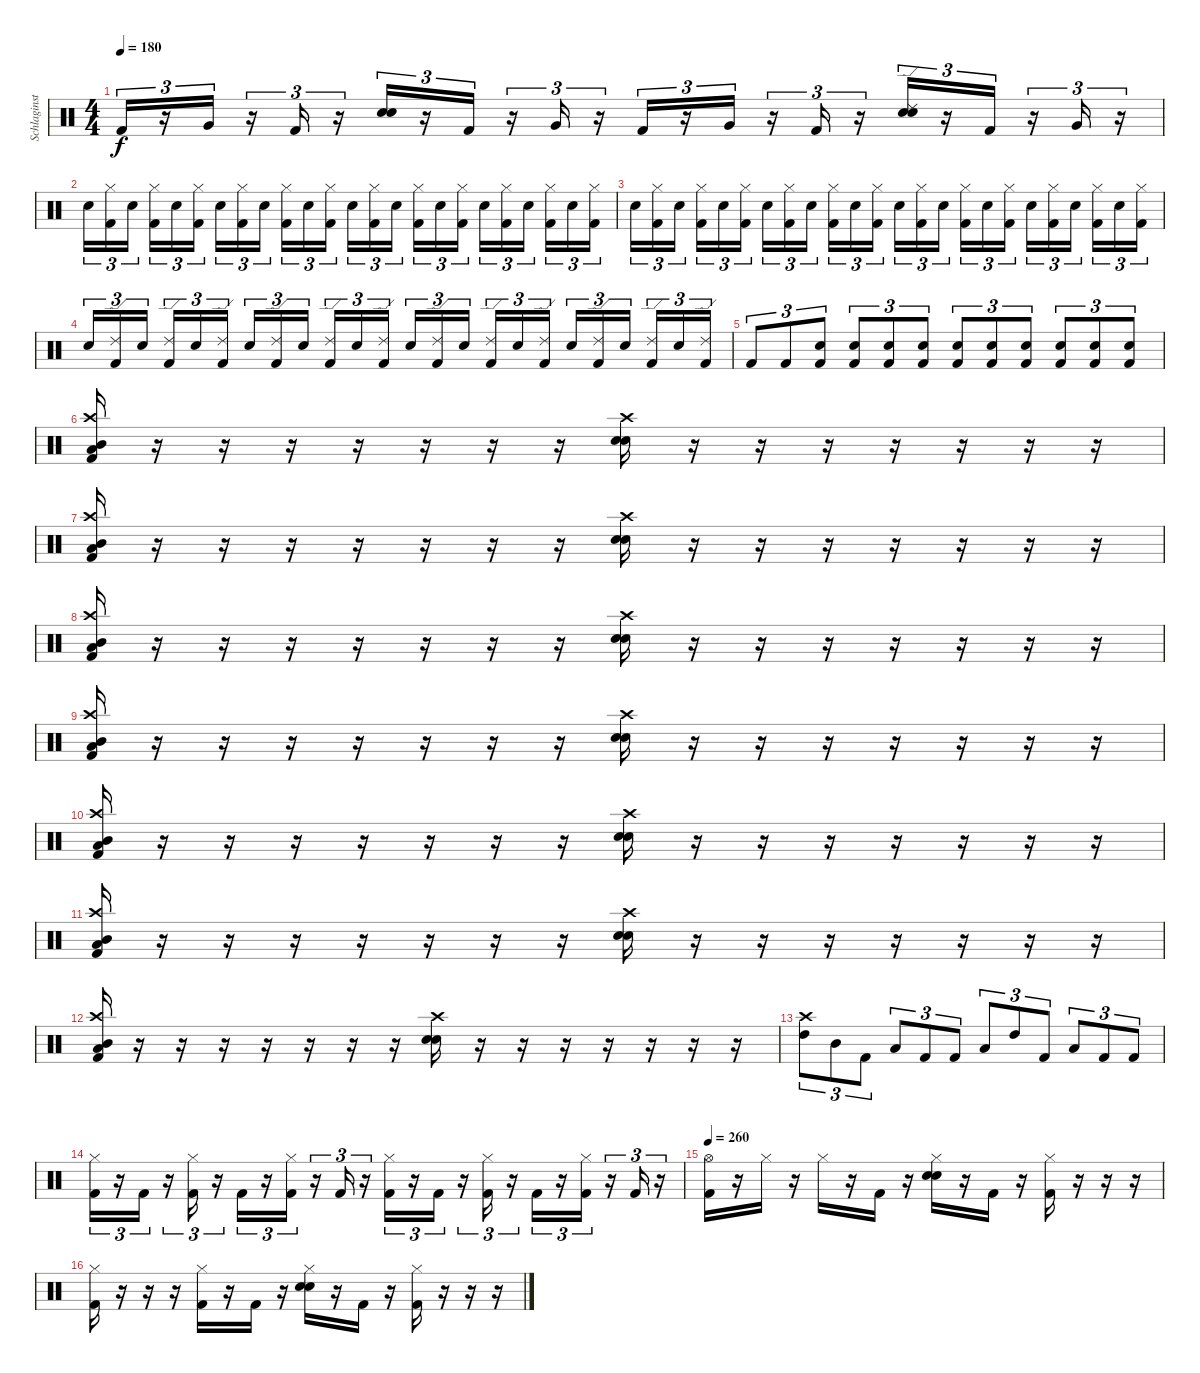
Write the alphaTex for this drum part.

\track ("Schlaginstrumente - Auswahl" "Schlaginst") {instrument percussion}
\staff {score}
\articulation defaults
\ts (4 4)
\tempo 180
\clef neutral
\ks c "Kick (hit) 2".16{tu (3 2) dy f}
r.16{tu (3 2)} "Very Low Tom (hit)".16{tu (3 2)} r.16{tu (3 2)} "Kick (hit) 2".16{tu (3 2)} r.16{tu (3 2)} ("Electric Snare (hit)" "Electric Snare (hit)").16{tu (3 2)} r.16{tu (3 2)} "Kick (hit) 2".16{tu (3 2)} r.16{tu (3 2)} "Very Low Tom (hit)".16{tu (3 2)} r.16{tu (3 2)} "Kick (hit) 2".16{tu (3 2)} r.16{tu (3 2)} "Very Low Tom (hit)".16{tu (3 2)} r.16{tu (3 2)} "Kick (hit) 2".16{tu (3 2)} r.16{tu (3 2)} ("Ride (edge) 2" "Electric Snare (hit)" "Electric Snare (hit)").16{tu (3 2)} r.16{tu (3 2)} "Kick (hit) 2".16{tu (3 2)} r.16{tu (3 2)} "Very Low Tom (hit)".16{tu (3 2)} r.16{tu (3 2)} |
"Electric Snare (hit)".16{tu (3 2)} ("Hi-Hat (closed)" "Kick (hit) 2").16{tu (3 2)} "Electric Snare (hit)".16{tu (3 2) beam splitsecondary} ("Hi-Hat (closed)" "Kick (hit) 2").16{tu (3 2)} "Electric Snare (hit)".16{tu (3 2)} ("Hi-Hat (closed)" "Kick (hit) 2").16{tu (3 2)} "Electric Snare (hit)".16{tu (3 2)} ("Hi-Hat (closed)" "Kick (hit) 2").16{tu (3 2)} "Electric Snare (hit)".16{tu (3 2) beam splitsecondary} ("Hi-Hat (closed)" "Kick (hit) 2").16{tu (3 2)} "Electric Snare (hit)".16{tu (3 2)} ("Hi-Hat (closed)" "Kick (hit) 2").16{tu (3 2)} "Electric Snare (hit)".16{tu (3 2)} ("Hi-Hat (closed)" "Kick (hit) 2").16{tu (3 2)} "Electric Snare (hit)".16{tu (3 2) beam splitsecondary} ("Hi-Hat (closed)" "Kick (hit) 2").16{tu (3 2)} "Electric Snare (hit)".16{tu (3 2)} ("Hi-Hat (closed)" "Kick (hit) 2").16{tu (3 2)} "Electric Snare (hit)".16{tu (3 2)} ("Hi-Hat (closed)" "Kick (hit) 2").16{tu (3 2)} "Electric Snare (hit)".16{tu (3 2) beam splitsecondary} ("Hi-Hat (closed)" "Kick (hit) 2").16{tu (3 2)} "Electric Snare (hit)".16{tu (3 2)} ("Hi-Hat (closed)" "Kick (hit) 2").16{tu (3 2)} |
"Electric Snare (hit)".16{tu (3 2)} ("Hi-Hat (closed)" "Kick (hit) 2").16{tu (3 2)} "Electric Snare (hit)".16{tu (3 2) beam splitsecondary} ("Hi-Hat (closed)" "Kick (hit) 2").16{tu (3 2)} "Electric Snare (hit)".16{tu (3 2)} ("Hi-Hat (closed)" "Kick (hit) 2").16{tu (3 2)} "Electric Snare (hit)".16{tu (3 2)} ("Hi-Hat (closed)" "Kick (hit) 2").16{tu (3 2)} "Electric Snare (hit)".16{tu (3 2) beam splitsecondary} ("Hi-Hat (closed)" "Kick (hit) 2").16{tu (3 2)} "Electric Snare (hit)".16{tu (3 2)} ("Hi-Hat (closed)" "Kick (hit) 2").16{tu (3 2)} "Electric Snare (hit)".16{tu (3 2)} ("Hi-Hat (closed)" "Kick (hit) 2").16{tu (3 2)} "Electric Snare (hit)".16{tu (3 2) beam splitsecondary} ("Hi-Hat (closed)" "Kick (hit) 2").16{tu (3 2)} "Electric Snare (hit)".16{tu (3 2)} ("Hi-Hat (closed)" "Kick (hit) 2").16{tu (3 2)} "Electric Snare (hit)".16{tu (3 2)} ("Hi-Hat (closed)" "Kick (hit) 2").16{tu (3 2)} "Electric Snare (hit)".16{tu (3 2) beam splitsecondary} ("Hi-Hat (closed)" "Kick (hit) 2").16{tu (3 2)} "Electric Snare (hit)".16{tu (3 2)} ("Hi-Hat (closed)" "Kick (hit) 2").16{tu (3 2)} |
"Electric Snare (hit)".16{tu (3 2)} ("Ride (edge) 2" "Kick (hit) 2").16{tu (3 2)} "Electric Snare (hit)".16{tu (3 2) beam splitsecondary} ("Ride (edge) 2" "Kick (hit) 2").16{tu (3 2)} "Electric Snare (hit)".16{tu (3 2)} ("Ride (edge) 2" "Kick (hit) 2").16{tu (3 2)} "Electric Snare (hit)".16{tu (3 2)} ("Ride (edge) 2" "Kick (hit) 2").16{tu (3 2)} "Electric Snare (hit)".16{tu (3 2) beam splitsecondary} ("Ride (edge) 2" "Kick (hit) 2").16{tu (3 2)} "Electric Snare (hit)".16{tu (3 2)} ("Ride (edge) 2" "Kick (hit) 2").16{tu (3 2)} "Electric Snare (hit)".16{tu (3 2)} ("Ride (edge) 2" "Kick (hit) 2").16{tu (3 2)} "Electric Snare (hit)".16{tu (3 2) beam splitsecondary} ("Ride (edge) 2" "Kick (hit) 2").16{tu (3 2)} "Electric Snare (hit)".16{tu (3 2)} ("Ride (edge) 2" "Kick (hit) 2").16{tu (3 2)} "Electric Snare (hit)".16{tu (3 2)} ("Ride (edge) 2" "Kick (hit) 2").16{tu (3 2)} "Electric Snare (hit)".16{tu (3 2) beam splitsecondary} ("Ride (edge) 2" "Kick (hit) 2").16{tu (3 2)} "Electric Snare (hit)".16{tu (3 2)} ("Ride (edge) 2" "Kick (hit) 2").16{tu (3 2)} |
"Kick (hit) 2".8{tu (3 2)} "Kick (hit) 2".8{tu (3 2)} ("Electric Snare (hit)" "Kick (hit) 2").8{tu (3 2)} ("Electric Snare (hit)" "Kick (hit) 2").8{tu (3 2)} ("Electric Snare (hit)" "Kick (hit) 2").8{tu (3 2)} ("Electric Snare (hit)" "Kick (hit) 2").8{tu (3 2)} ("Electric Snare (hit)" "Kick (hit) 2").8{tu (3 2)} ("Electric Snare (hit)" "Kick (hit) 2").8{tu (3 2)} ("Electric Snare (hit)" "Kick (hit) 2").8{tu (3 2)} ("Electric Snare (hit)" "Kick (hit) 2").8{tu (3 2)} ("Electric Snare (hit)" "Kick (hit) 2").8{tu (3 2)} ("Electric Snare (hit)" "Kick (hit) 2").8{tu (3 2)} |
("Crash high (hit)" "Low Floor Tom (hit)" "Mid Tom (hit)" "Kick (hit) 2").16 r.16 r.16 r.16 r.16 r.16 r.16 r.16 ("Crash high (hit)" "Electric Snare (hit)" "Electric Snare (hit)").16 r.16 r.16 r.16 r.16 r.16 r.16 r.16 |
("Crash high (hit)" "Low Floor Tom (hit)" "Mid Tom (hit)" "Kick (hit) 2").16 r.16 r.16 r.16 r.16 r.16 r.16 r.16 ("Crash high (hit)" "Electric Snare (hit)" "Electric Snare (hit)").16 r.16 r.16 r.16 r.16 r.16 r.16 r.16 |
("Crash high (hit)" "Low Floor Tom (hit)" "Mid Tom (hit)" "Kick (hit) 2").16 r.16 r.16 r.16 r.16 r.16 r.16 r.16 ("Crash high (hit)" "Electric Snare (hit)" "Electric Snare (hit)").16 r.16 r.16 r.16 r.16 r.16 r.16 r.16 |
("Crash high (hit)" "Low Floor Tom (hit)" "Mid Tom (hit)" "Kick (hit) 2").16 r.16 r.16 r.16 r.16 r.16 r.16 r.16 ("Crash high (hit)" "Electric Snare (hit)" "Electric Snare (hit)").16 r.16 r.16 r.16 r.16 r.16 r.16 r.16 |
("Crash high (hit)" "Low Floor Tom (hit)" "Mid Tom (hit)" "Kick (hit) 2").16 r.16 r.16 r.16 r.16 r.16 r.16 r.16 ("Crash high (hit)" "Electric Snare (hit)" "Electric Snare (hit)").16 r.16 r.16 r.16 r.16 r.16 r.16 r.16 |
("Crash high (hit)" "Low Floor Tom (hit)" "Mid Tom (hit)" "Kick (hit) 2").16 r.16 r.16 r.16 r.16 r.16 r.16 r.16 ("Crash high (hit)" "Electric Snare (hit)" "Electric Snare (hit)").16 r.16 r.16 r.16 r.16 r.16 r.16 r.16 |
("Crash high (hit)" "Low Floor Tom (hit)" "Mid Tom (hit)" "Kick (hit) 2").16 r.16 r.16 r.16 r.16 r.16 r.16 r.16 ("Crash high (hit)" "Electric Snare (hit)" "Electric Snare (hit)").16 r.16 r.16 r.16 r.16 r.16 r.16 r.16 |
("Crash high (hit)" "High Tom (hit)").8{tu (3 2)} "Mid Tom (hit)".8{tu (3 2)} "Kick (hit) 2".8{tu (3 2)} "Low Floor Tom (hit)".8{tu (3 2)} "Kick (hit) 2".8{tu (3 2)} "Kick (hit) 2".8{tu (3 2)} "Low Tom (hit)".8{tu (3 2)} "High Tom (hit)".8{tu (3 2)} "Kick (hit) 2".8{tu (3 2)} "Low Tom (hit)".8{tu (3 2)} "Kick (hit) 2".8{tu (3 2)} "Kick (hit) 2".8{tu (3 2)} |
("Hi-Hat (closed)" "Kick (hit) 2").16{tu (3 2)} r.16{tu (3 2)} "Kick (hit) 2".16{tu (3 2)} r.16{tu (3 2)} ("Hi-Hat (closed)" "Kick (hit) 2").16{tu (3 2)} r.16{tu (3 2)} "Kick (hit) 2".16{tu (3 2)} r.16{tu (3 2)} ("Hi-Hat (closed)" "Kick (hit) 2").16{tu (3 2)} r.16{tu (3 2)} "Kick (hit) 2".16{tu (3 2)} r.16{tu (3 2)} ("Hi-Hat (closed)" "Kick (hit) 2").16{tu (3 2)} r.16{tu (3 2)} "Kick (hit) 2".16{tu (3 2)} r.16{tu (3 2)} ("Hi-Hat (closed)" "Kick (hit) 2").16{tu (3 2)} r.16{tu (3 2)} "Kick (hit) 2".16{tu (3 2)} r.16{tu (3 2)} ("Hi-Hat (closed)" "Kick (hit) 2").16{tu (3 2)} r.16{tu (3 2)} "Kick (hit) 2".16{tu (3 2)} r.16{tu (3 2)} |
\tempo 260
("Hi-Hat (open)" "Kick (hit) 2").16 r.16 "Hi-Hat (closed)".16 r.16 "Hi-Hat (closed)".16 r.16 "Kick (hit) 2".16 r.16 ("Hi-Hat (closed)" "Electric Snare (hit)" "Electric Snare (hit)").16 r.16 "Kick (hit) 2".16 r.16 ("Hi-Hat (closed)" "Kick (hit) 2").16 r.16 r.16 r.16 |
("Hi-Hat (closed)" "Kick (hit) 2").16 r.16 r.16 r.16 ("Hi-Hat (closed)" "Kick (hit) 2").16 r.16 "Kick (hit) 2".16 r.16 ("Hi-Hat (closed)" "Electric Snare (hit)" "Electric Snare (hit)").16 r.16 "Kick (hit) 2".16 r.16 ("Hi-Hat (closed)" "Kick (hit) 2").16 r.16 r.16 r.16
